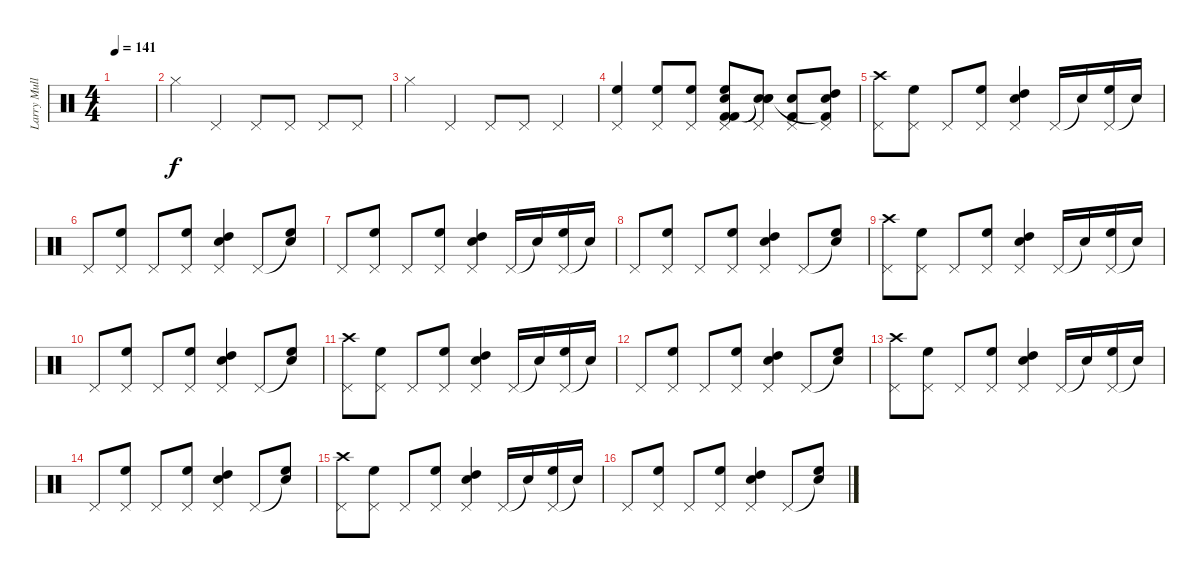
\track ("Larry Mullen Jr's Drums" "Larry Mull") {instrument percussion}
\staff {score}
\articulation defaults
\ts (4 4)
\tempo 141
\clef neutral
\ks c
|
"Hi-Hat (closed)".4 "Pedal Hi-Hat (hit)".4 "Pedal Hi-Hat (hit)".8 "Pedal Hi-Hat (hit)".8 "Pedal Hi-Hat (hit)".8 "Pedal Hi-Hat (hit)".8 |
"Hi-Hat (closed)".4 "Pedal Hi-Hat (hit)".4 "Pedal Hi-Hat (hit)".8 "Pedal Hi-Hat (hit)".8 "Pedal Hi-Hat (hit)".4 |
("Pedal Hi-Hat (hit)" "High Floor Tom (hit)").4 ("Pedal Hi-Hat (hit)" "High Floor Tom (hit)").8 ("Pedal Hi-Hat (hit)" "High Floor Tom (hit)").8 ("Pedal Hi-Hat (hit)" "Electric Snare (hit)" "Kick (hit) 2" "Kick (hit) 2" "High Floor Tom (hit)").8 ("Pedal Hi-Hat (hit)" "Electric Snare (hit)" "Snare (hit)"{t} "Snare (hit)"{t}).8 ("Pedal Hi-Hat (hit)" "Electric Snare (hit)" "Kick (hit) 2").8 ("Pedal Hi-Hat (hit)" "Electric Snare (hit)" "High Tom (hit)" "Kick (hit) 2"{t}).8 |
("Pedal Hi-Hat (hit)" "Crash high (hit)").8 ("Pedal Hi-Hat (hit)" "High Floor Tom (hit)").8 "Pedal Hi-Hat (hit)".8 ("Pedal Hi-Hat (hit)" "High Floor Tom (hit)").8 ("Pedal Hi-Hat (hit)" "High Tom (hit)" "Electric Snare (hit)").4 "Pedal Hi-Hat (hit)".16 "Snare (hit)"{t}.16 ("Pedal Hi-Hat (hit)" "High Floor Tom (hit)").16 "Snare (hit)"{t}.16 |
"Pedal Hi-Hat (hit)".8 ("Pedal Hi-Hat (hit)" "High Floor Tom (hit)").8 "Pedal Hi-Hat (hit)".8 ("Pedal Hi-Hat (hit)" "High Floor Tom (hit)").8 ("Pedal Hi-Hat (hit)" "High Tom (hit)" "Electric Snare (hit)").4 "Pedal Hi-Hat (hit)".8 ("Snare (hit)"{t} "High Floor Tom (hit)").8 |
"Pedal Hi-Hat (hit)".8 ("Pedal Hi-Hat (hit)" "High Floor Tom (hit)").8 "Pedal Hi-Hat (hit)".8 ("Pedal Hi-Hat (hit)" "High Floor Tom (hit)").8 ("Pedal Hi-Hat (hit)" "High Tom (hit)" "Electric Snare (hit)").4 "Pedal Hi-Hat (hit)".16 "Snare (hit)"{t}.16 ("Pedal Hi-Hat (hit)" "High Floor Tom (hit)").16 "Snare (hit)"{t}.16 |
"Pedal Hi-Hat (hit)".8 ("Pedal Hi-Hat (hit)" "High Floor Tom (hit)").8 "Pedal Hi-Hat (hit)".8 ("Pedal Hi-Hat (hit)" "High Floor Tom (hit)").8 ("Pedal Hi-Hat (hit)" "High Tom (hit)" "Electric Snare (hit)").4 "Pedal Hi-Hat (hit)".8 ("Snare (hit)"{t} "High Floor Tom (hit)").8 |
("Pedal Hi-Hat (hit)" "Crash high (hit)").8 ("Pedal Hi-Hat (hit)" "High Floor Tom (hit)").8 "Pedal Hi-Hat (hit)".8 ("Pedal Hi-Hat (hit)" "High Floor Tom (hit)").8 ("Pedal Hi-Hat (hit)" "High Tom (hit)" "Electric Snare (hit)").4 "Pedal Hi-Hat (hit)".16 "Snare (hit)"{t}.16 ("Pedal Hi-Hat (hit)" "High Floor Tom (hit)").16 "Snare (hit)"{t}.16 |
"Pedal Hi-Hat (hit)".8 ("Pedal Hi-Hat (hit)" "High Floor Tom (hit)").8 "Pedal Hi-Hat (hit)".8 ("Pedal Hi-Hat (hit)" "High Floor Tom (hit)").8 ("Pedal Hi-Hat (hit)" "High Tom (hit)" "Electric Snare (hit)").4 "Pedal Hi-Hat (hit)".8 ("Snare (hit)"{t} "High Floor Tom (hit)").8 |
("Pedal Hi-Hat (hit)" "Crash high (hit)").8 ("Pedal Hi-Hat (hit)" "High Floor Tom (hit)").8 "Pedal Hi-Hat (hit)".8 ("Pedal Hi-Hat (hit)" "High Floor Tom (hit)").8 ("Pedal Hi-Hat (hit)" "High Tom (hit)" "Electric Snare (hit)").4 "Pedal Hi-Hat (hit)".16 "Snare (hit)"{t}.16 ("Pedal Hi-Hat (hit)" "High Floor Tom (hit)").16 "Snare (hit)"{t}.16 |
"Pedal Hi-Hat (hit)".8 ("Pedal Hi-Hat (hit)" "High Floor Tom (hit)").8 "Pedal Hi-Hat (hit)".8 ("Pedal Hi-Hat (hit)" "High Floor Tom (hit)").8 ("Pedal Hi-Hat (hit)" "High Tom (hit)" "Electric Snare (hit)").4 "Pedal Hi-Hat (hit)".8 ("Snare (hit)"{t} "High Floor Tom (hit)").8 |
("Pedal Hi-Hat (hit)" "Crash high (hit)").8 ("Pedal Hi-Hat (hit)" "High Floor Tom (hit)").8 "Pedal Hi-Hat (hit)".8 ("Pedal Hi-Hat (hit)" "High Floor Tom (hit)").8 ("Pedal Hi-Hat (hit)" "High Tom (hit)" "Electric Snare (hit)").4 "Pedal Hi-Hat (hit)".16 "Snare (hit)"{t}.16 ("Pedal Hi-Hat (hit)" "High Floor Tom (hit)").16 "Snare (hit)"{t}.16 |
"Pedal Hi-Hat (hit)".8 ("Pedal Hi-Hat (hit)" "High Floor Tom (hit)").8 "Pedal Hi-Hat (hit)".8 ("Pedal Hi-Hat (hit)" "High Floor Tom (hit)").8 ("Pedal Hi-Hat (hit)" "High Tom (hit)" "Electric Snare (hit)").4 "Pedal Hi-Hat (hit)".8 ("Snare (hit)"{t} "High Floor Tom (hit)").8 |
("Pedal Hi-Hat (hit)" "Crash high (hit)").8 ("Pedal Hi-Hat (hit)" "High Floor Tom (hit)").8 "Pedal Hi-Hat (hit)".8 ("Pedal Hi-Hat (hit)" "High Floor Tom (hit)").8 ("Pedal Hi-Hat (hit)" "High Tom (hit)" "Electric Snare (hit)").4 "Pedal Hi-Hat (hit)".16 "Snare (hit)"{t}.16 ("Pedal Hi-Hat (hit)" "High Floor Tom (hit)").16 "Snare (hit)"{t}.16 |
"Pedal Hi-Hat (hit)".8 ("Pedal Hi-Hat (hit)" "High Floor Tom (hit)").8 "Pedal Hi-Hat (hit)".8 ("Pedal Hi-Hat (hit)" "High Floor Tom (hit)").8 ("Pedal Hi-Hat (hit)" "High Tom (hit)" "Electric Snare (hit)").4 "Pedal Hi-Hat (hit)".8 ("Snare (hit)"{t} "High Floor Tom (hit)").8
